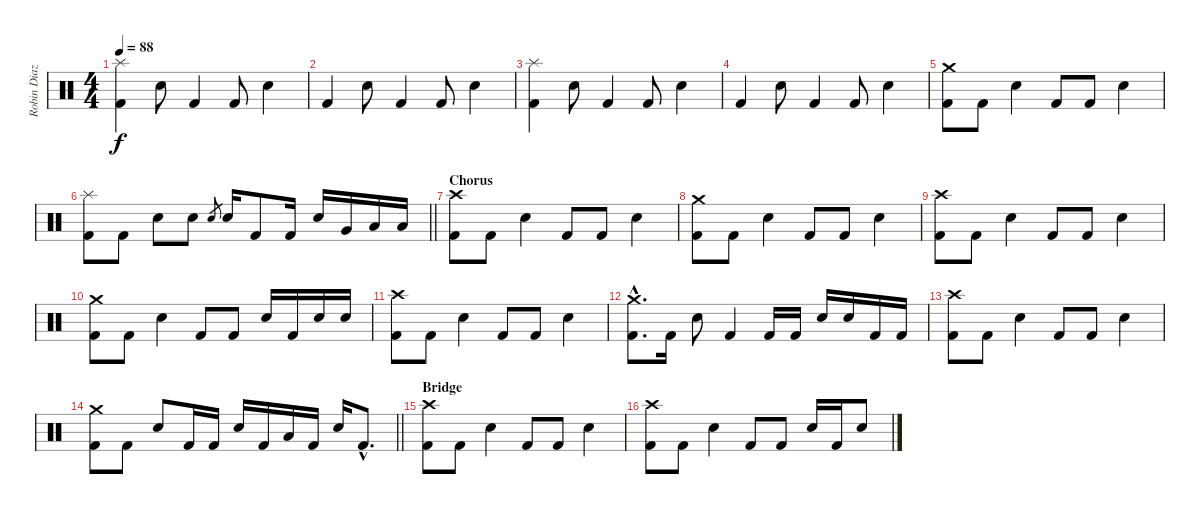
\track ("Robin Diaz (Drums)" "Robin Diaz") {instrument percussion}
\staff {score}
\articulation defaults
\ts (4 4)
\tempo 88
\clef neutral
\ks c
("Splash (hit)" "Kick (hit) 2").4{dy f} "Electric Snare (hit)".8 "Kick (hit) 2".4 "Kick (hit) 2".8 "Electric Snare (hit)".4 |
"Kick (hit) 2".4 "Electric Snare (hit)".8 "Kick (hit) 2".4 "Kick (hit) 2".8 "Electric Snare (hit)".4 |
("Splash (hit)" "Kick (hit) 2").4 "Electric Snare (hit)".8 "Kick (hit) 2".4 "Kick (hit) 2".8 "Electric Snare (hit)".4 |
"Kick (hit) 2".4 "Electric Snare (hit)".8 "Kick (hit) 2".4 "Kick (hit) 2".8 "Electric Snare (hit)".4 |
("Crash medium (hit)" "Kick (hit) 2").8 "Kick (hit) 2".8 "Electric Snare (hit)".4 "Kick (hit) 2".8 "Kick (hit) 2".8 "Electric Snare (hit)".4 |
\barLineRight lightlight
("Splash (hit)" "Kick (hit) 2").8 "Kick (hit) 2".8 "Electric Snare (hit)".8 "Electric Snare (hit)".8 "Electric Snare (hit)".8{gr} "Electric Snare (hit)".16 "Kick (hit) 2".8 "Kick (hit) 2".16 "Electric Snare (hit)".16 "Very Low Tom (hit)".16 "Low Floor Tom (hit)".16 "Low Floor Tom (hit)".16 |
\section ("" "Chorus")
("Crash high (hit)" "Kick (hit) 2").8 "Kick (hit) 2".8 "Electric Snare (hit)".4 "Kick (hit) 2".8 "Kick (hit) 2".8 "Electric Snare (hit)".4 |
("Crash medium (hit)" "Kick (hit) 2").8 "Kick (hit) 2".8 "Electric Snare (hit)".4 "Kick (hit) 2".8 "Kick (hit) 2".8 "Electric Snare (hit)".4 |
("Crash high (hit)" "Kick (hit) 2").8 "Kick (hit) 2".8 "Electric Snare (hit)".4 "Kick (hit) 2".8 "Kick (hit) 2".8 "Electric Snare (hit)".4 |
("Crash medium (hit)" "Kick (hit) 2").8 "Kick (hit) 2".8 "Electric Snare (hit)".4 "Kick (hit) 2".8 "Kick (hit) 2".8 "Electric Snare (hit)".16 "Kick (hit) 2".16 "Electric Snare (hit)".16 "Electric Snare (hit)".16 |
("Crash high (hit)" "Kick (hit) 2").8 "Kick (hit) 2".8 "Electric Snare (hit)".4 "Kick (hit) 2".8 "Kick (hit) 2".8 "Electric Snare (hit)".4 |
("Crash medium (hit)"{hac} "Kick (hit) 2"{hac}).8{d} "Kick (hit) 2".16 "Electric Snare (hit)".8 "Kick (hit) 2".4 "Kick (hit) 2".16 "Kick (hit) 2".16 "Electric Snare (hit)".16 "Electric Snare (hit)".16 "Kick (hit) 2".16 "Kick (hit) 2".16 |
("Crash high (hit)" "Kick (hit) 2").8 "Kick (hit) 2".8 "Electric Snare (hit)".4 "Kick (hit) 2".8 "Kick (hit) 2".8 "Electric Snare (hit)".4 |
\barLineRight lightlight
("Crash medium (hit)" "Kick (hit) 2").8 "Kick (hit) 2".8 "Electric Snare (hit)".8 "Kick (hit) 2".16 "Kick (hit) 2".16 "Electric Snare (hit)".16 "Kick (hit) 2".16 "Low Floor Tom (hit)".16 "Kick (hit) 2".16 "Electric Snare (hit)".16 "Kick (hit) 2"{hac}.8{d} |
\section ("" "Bridge")
("Crash high (hit)" "Kick (hit) 2").8 "Kick (hit) 2".8 "Electric Snare (hit)".4 "Kick (hit) 2".8 "Kick (hit) 2".8 "Electric Snare (hit)".4 |
("Crash high (hit)" "Kick (hit) 2").8 "Kick (hit) 2".8 "Electric Snare (hit)".4 "Kick (hit) 2".8 "Kick (hit) 2".8 "Electric Snare (hit)".16 "Kick (hit) 2".16 "Electric Snare (hit)".8
